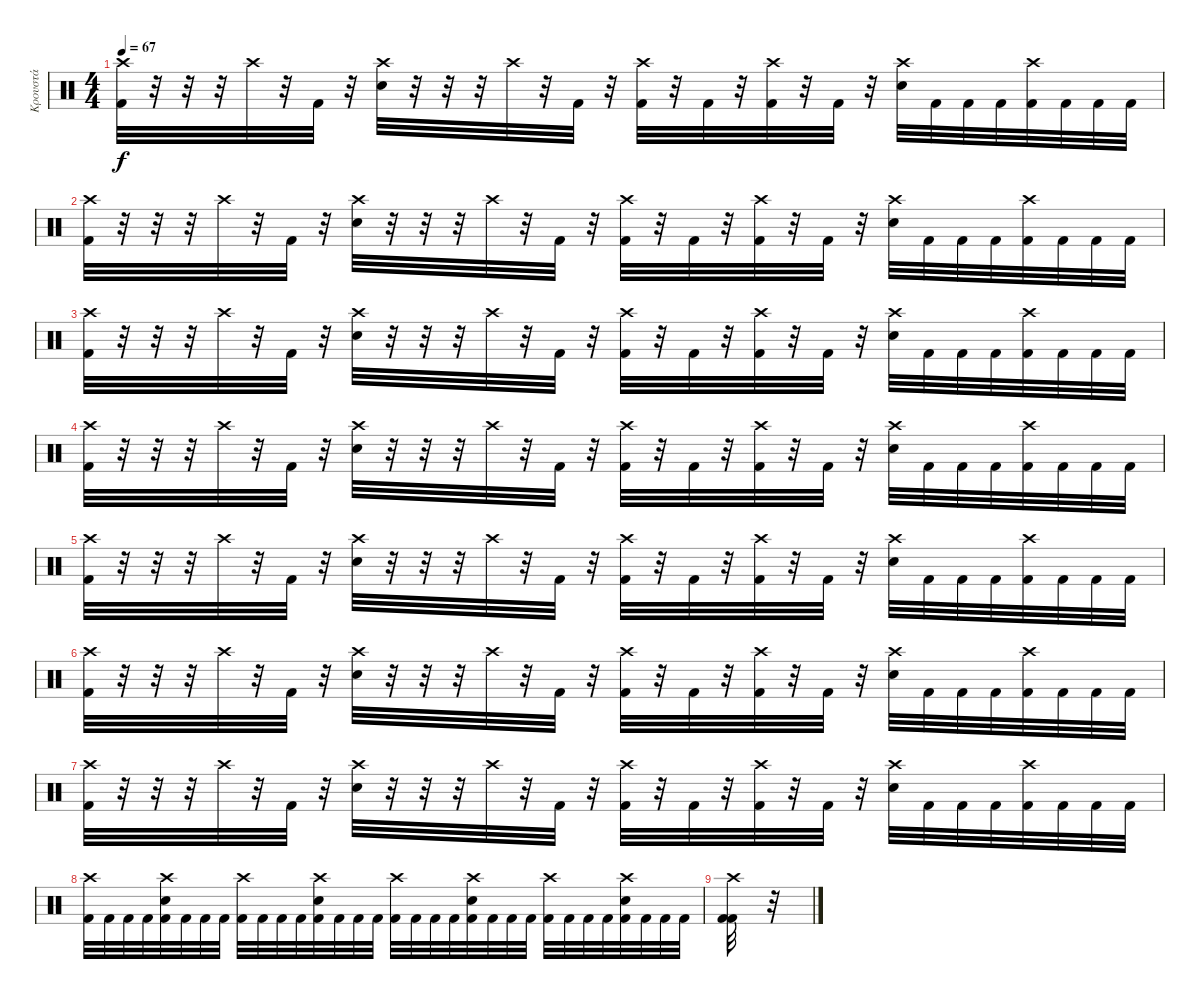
\track ("Κρουστά" "Κρουστά") {instrument percussion}
\staff {score}
\articulation defaults
\ts (4 4)
\tempo 67
\clef neutral
\ks c
("Crash high (hit)" "Kick (hit) 2").32{dy f} r.32 r.32 r.32 "Crash high (hit)".32 r.32 "Kick (hit) 2".32 r.32 ("Crash high (hit)" "Electric Snare (hit)").32 r.32 r.32 r.32 "Crash high (hit)".32 r.32 "Kick (hit) 2".32 r.32 ("Crash high (hit)" "Kick (hit) 2").32 r.32 "Kick (hit) 2".32 r.32 ("Crash high (hit)" "Kick (hit) 2").32 r.32 "Kick (hit) 2".32 r.32 ("Crash high (hit)" "Electric Snare (hit)").32 "Kick (hit) 2".32 "Kick (hit) 2".32 "Kick (hit) 2".32 ("Crash high (hit)" "Kick (hit) 2").32 "Kick (hit) 2".32 "Kick (hit) 2".32 "Kick (hit) 2".32 |
("Crash high (hit)" "Kick (hit) 2").32 r.32 r.32 r.32 "Crash high (hit)".32 r.32 "Kick (hit) 2".32 r.32 ("Crash high (hit)" "Electric Snare (hit)").32 r.32 r.32 r.32 "Crash high (hit)".32 r.32 "Kick (hit) 2".32 r.32 ("Crash high (hit)" "Kick (hit) 2").32 r.32 "Kick (hit) 2".32 r.32 ("Crash high (hit)" "Kick (hit) 2").32 r.32 "Kick (hit) 2".32 r.32 ("Crash high (hit)" "Electric Snare (hit)").32 "Kick (hit) 2".32 "Kick (hit) 2".32 "Kick (hit) 2".32 ("Crash high (hit)" "Kick (hit) 2").32 "Kick (hit) 2".32 "Kick (hit) 2".32 "Kick (hit) 2".32 |
("Crash high (hit)" "Kick (hit) 2").32 r.32 r.32 r.32 "Crash high (hit)".32 r.32 "Kick (hit) 2".32 r.32 ("Crash high (hit)" "Electric Snare (hit)").32 r.32 r.32 r.32 "Crash high (hit)".32 r.32 "Kick (hit) 2".32 r.32 ("Crash high (hit)" "Kick (hit) 2").32 r.32 "Kick (hit) 2".32 r.32 ("Crash high (hit)" "Kick (hit) 2").32 r.32 "Kick (hit) 2".32 r.32 ("Crash high (hit)" "Electric Snare (hit)").32 "Kick (hit) 2".32 "Kick (hit) 2".32 "Kick (hit) 2".32 ("Crash high (hit)" "Kick (hit) 2").32 "Kick (hit) 2".32 "Kick (hit) 2".32 "Kick (hit) 2".32 |
("Crash high (hit)" "Kick (hit) 2").32 r.32 r.32 r.32 "Crash high (hit)".32 r.32 "Kick (hit) 2".32 r.32 ("Crash high (hit)" "Electric Snare (hit)").32 r.32 r.32 r.32 "Crash high (hit)".32 r.32 "Kick (hit) 2".32 r.32 ("Crash high (hit)" "Kick (hit) 2").32 r.32 "Kick (hit) 2".32 r.32 ("Crash high (hit)" "Kick (hit) 2").32 r.32 "Kick (hit) 2".32 r.32 ("Crash high (hit)" "Electric Snare (hit)").32 "Kick (hit) 2".32 "Kick (hit) 2".32 "Kick (hit) 2".32 ("Crash high (hit)" "Kick (hit) 2").32 "Kick (hit) 2".32 "Kick (hit) 2".32 "Kick (hit) 2".32 |
("Crash high (hit)" "Kick (hit) 2").32 r.32 r.32 r.32 "Crash high (hit)".32 r.32 "Kick (hit) 2".32 r.32 ("Crash high (hit)" "Electric Snare (hit)").32 r.32 r.32 r.32 "Crash high (hit)".32 r.32 "Kick (hit) 2".32 r.32 ("Crash high (hit)" "Kick (hit) 2").32 r.32 "Kick (hit) 2".32 r.32 ("Crash high (hit)" "Kick (hit) 2").32 r.32 "Kick (hit) 2".32 r.32 ("Crash high (hit)" "Electric Snare (hit)").32 "Kick (hit) 2".32 "Kick (hit) 2".32 "Kick (hit) 2".32 ("Crash high (hit)" "Kick (hit) 2").32 "Kick (hit) 2".32 "Kick (hit) 2".32 "Kick (hit) 2".32 |
("Crash high (hit)" "Kick (hit) 2").32 r.32 r.32 r.32 "Crash high (hit)".32 r.32 "Kick (hit) 2".32 r.32 ("Crash high (hit)" "Electric Snare (hit)").32 r.32 r.32 r.32 "Crash high (hit)".32 r.32 "Kick (hit) 2".32 r.32 ("Crash high (hit)" "Kick (hit) 2").32 r.32 "Kick (hit) 2".32 r.32 ("Crash high (hit)" "Kick (hit) 2").32 r.32 "Kick (hit) 2".32 r.32 ("Crash high (hit)" "Electric Snare (hit)").32 "Kick (hit) 2".32 "Kick (hit) 2".32 "Kick (hit) 2".32 ("Crash high (hit)" "Kick (hit) 2").32 "Kick (hit) 2".32 "Kick (hit) 2".32 "Kick (hit) 2".32 |
("Crash high (hit)" "Kick (hit) 2").32 r.32 r.32 r.32 "Crash high (hit)".32 r.32 "Kick (hit) 2".32 r.32 ("Crash high (hit)" "Electric Snare (hit)").32 r.32 r.32 r.32 "Crash high (hit)".32 r.32 "Kick (hit) 2".32 r.32 ("Crash high (hit)" "Kick (hit) 2").32 r.32 "Kick (hit) 2".32 r.32 ("Crash high (hit)" "Kick (hit) 2").32 r.32 "Kick (hit) 2".32 r.32 ("Crash high (hit)" "Electric Snare (hit)").32 "Kick (hit) 2".32 "Kick (hit) 2".32 "Kick (hit) 2".32 ("Crash high (hit)" "Kick (hit) 2").32 "Kick (hit) 2".32 "Kick (hit) 2".32 "Kick (hit) 2".32 |
("Crash high (hit)" "Kick (hit) 2").32 "Kick (hit) 2".32 "Kick (hit) 2".32 "Kick (hit) 2".32 ("Crash high (hit)" "Electric Snare (hit)" "Kick (hit) 2").32 "Kick (hit) 2".32 "Kick (hit) 2".32 "Kick (hit) 2".32 ("Crash high (hit)" "Kick (hit) 2").32 "Kick (hit) 2".32 "Kick (hit) 2".32 "Kick (hit) 2".32 ("Crash high (hit)" "Electric Snare (hit)" "Kick (hit) 2").32 "Kick (hit) 2".32 "Kick (hit) 2".32 "Kick (hit) 2".32 ("Crash high (hit)" "Kick (hit) 2").32 "Kick (hit) 2".32 "Kick (hit) 2".32 "Kick (hit) 2".32 ("Crash high (hit)" "Electric Snare (hit)" "Kick (hit) 2").32 "Kick (hit) 2".32 "Kick (hit) 2".32 "Kick (hit) 2".32 ("Crash high (hit)" "Kick (hit) 2").32 "Kick (hit) 2".32 "Kick (hit) 2".32 "Kick (hit) 2".32 ("Crash high (hit)" "Electric Snare (hit)" "Kick (hit) 2").32 "Kick (hit) 2".32 "Kick (hit) 2".32 "Kick (hit) 2".32 |
("Crash high (hit)" "Kick (hit) 2" "Kick (hit) 2").32 r.32
